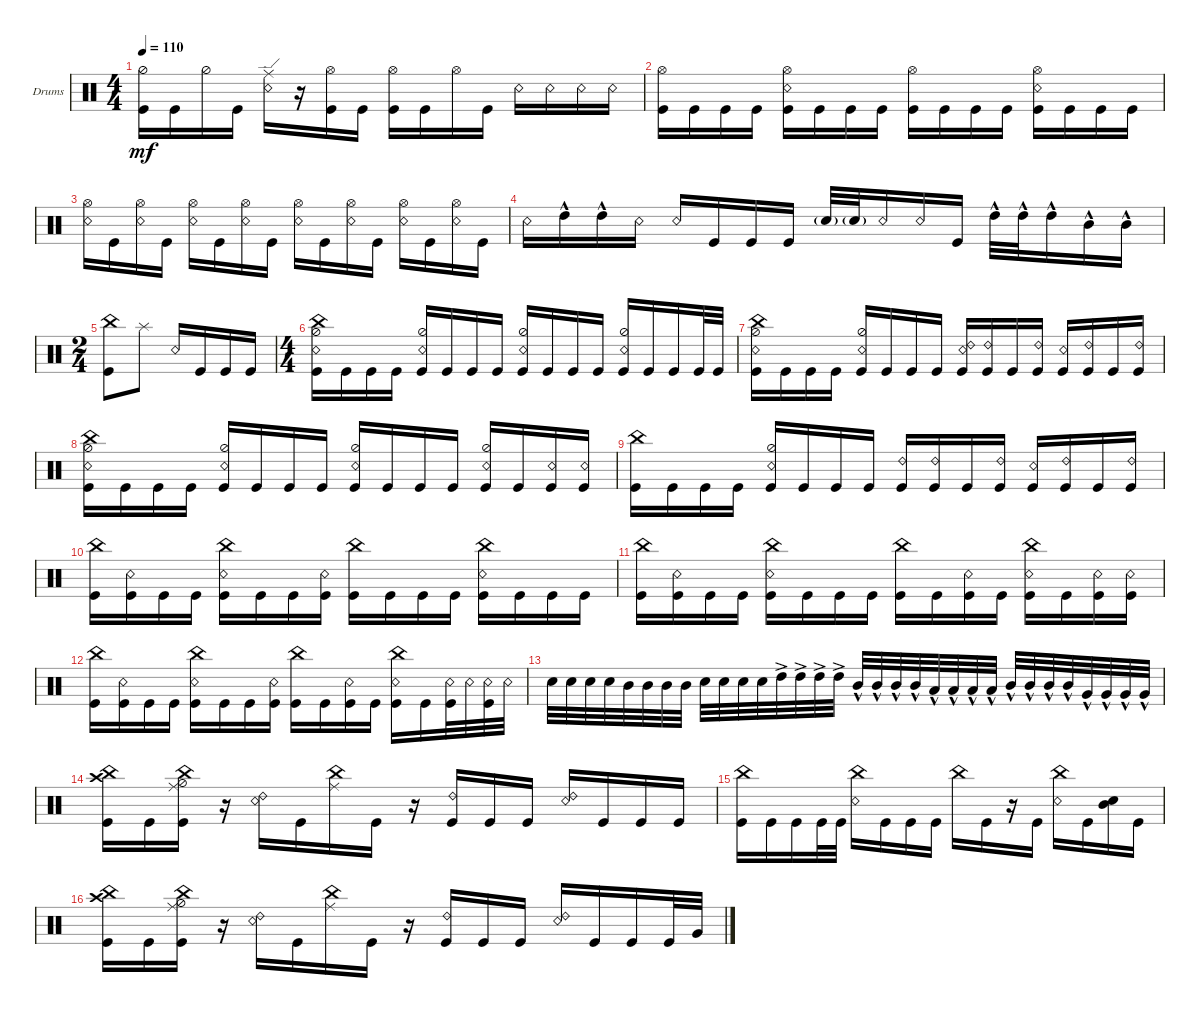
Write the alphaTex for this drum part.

\defaultSystemsLayout 4
\bracketExtendMode groupsimilarinstruments
\firstSystemTrackNameOrientation horizontal
\otherSystemsTrackNameOrientation horizontal
\track ("Drumkit" "Drums") {instrument percussion}
\staff {score}
\articulation defaults
\ts (4 4)
\tempo 110
\clef neutral
\ks c
("Kick (hit)" "Hi-Hat (half)").16{dy mf} "Kick (hit)".16 "Hi-Hat (half)".16 "Kick (hit)".16 ("Ride (edge)" "Snare (rim shot)").16 r.16 ("Kick (hit)" "Hi-Hat (open)").16 "Kick (hit)".16 ("Kick (hit)" "Hi-Hat (open)").16 "Kick (hit)".16 "Hi-Hat (open)".16 "Kick (hit)".16 "Snare (rim shot)".16 "Snare (rim shot)".16 "Snare (rim shot)".16 "Snare (rim shot)".16 |
("Kick (hit)" "Hi-Hat (open)").16 "Kick (hit)".16 "Kick (hit)".16 "Kick (hit)".16 ("Kick (hit)" "Snare (rim shot)" "Hi-Hat (open)").16 "Kick (hit)".16 "Kick (hit)".16 "Kick (hit)".16 ("Kick (hit)" "Hi-Hat (open)").16 "Kick (hit)".16 "Kick (hit)".16 "Kick (hit)".16 ("Kick (hit)" "Snare (rim shot)" "Hi-Hat (open)").16 "Kick (hit)".16 "Kick (hit)".16 "Kick (hit)".16 |
("Snare (rim shot)" "Hi-Hat (open)").16 "Kick (hit)".16 ("Snare (rim shot)" "Hi-Hat (open)").16 "Kick (hit)".16 ("Snare (rim shot)" "Hi-Hat (open)").16 "Kick (hit)".16 ("Snare (rim shot)" "Hi-Hat (open)").16 "Kick (hit)".16 ("Snare (rim shot)" "Hi-Hat (open)").16 "Kick (hit)".16 ("Snare (rim shot)" "Hi-Hat (open)").16 "Kick (hit)".16 ("Snare (rim shot)" "Hi-Hat (open)").16 "Kick (hit)".16 ("Snare (rim shot)" "Hi-Hat (open)").16 "Kick (hit)".16 |
"Snare (rim shot)".16 "High Tom (hit)"{hac}.16 "High Tom (hit)"{hac}.16 "Snare (rim shot)".16 "Snare (rim shot)".16 "Kick (hit)".16 "Kick (hit)".16 "Kick (hit)".16 "Snare (hit) 2"{g}.32 "Snare (hit) 2"{g}.32 "Snare (rim shot)".16 "Snare (rim shot)".16 "Kick (hit)".16 "High Tom (hit)"{hac}.32 "High Tom (hit)"{hac}.32 "High Tom (hit)"{hac}.16 "Mid Tom (hit)"{hac}.16 "Mid Tom (hit)"{hac}.16 |
\ts (2 4)
("Kick (hit)" "China (hit)").8 "Splash (hit)".8 "Snare (rim shot)".16 "Kick (hit)".16 "Kick (hit)".16 "Kick (hit)".16 |
\ts (4 4)
("Kick (hit)" "Snare (rim shot)" "Hi-Hat (half)" "China (hit)").16 "Kick (hit)".16 "Kick (hit)".16 "Kick (hit)".16 ("Kick (hit)" "Snare (rim shot)" "Hi-Hat (half)").16 "Kick (hit)".16 "Kick (hit)".16 "Kick (hit)".16 ("Kick (hit)" "Snare (rim shot)" "Hi-Hat (half)").16 "Kick (hit)".16 "Kick (hit)".16 "Kick (hit)".16 ("Kick (hit)" "Snare (rim shot)" "Hi-Hat (half)").16 "Kick (hit)".16 "Kick (hit)".16 "Kick (hit)".32 "Kick (hit)".32 |
("Kick (hit)" "Snare (rim shot)" "Hi-Hat (half)" "China (hit)").16 "Kick (hit)".16 "Kick (hit)".16 "Kick (hit)".16 ("Kick (hit)" "Snare (rim shot)" "Hi-Hat (half)").16 "Kick (hit)".16 "Kick (hit)".16 "Kick (hit)".16 ("Kick (hit)" "Snare (rim shot)" "Ride (bell) 2").16 ("Kick (hit)" "Ride (bell) 2").16 "Kick (hit)".16 ("Kick (hit)" "Ride (bell) 2").16 ("Kick (hit)" "Snare (rim shot)").16 ("Kick (hit)" "Ride (bell) 2").16 "Kick (hit)".16 ("Kick (hit)" "Ride (bell) 2").16 |
("Kick (hit)" "Snare (rim shot)" "Hi-Hat (half)" "China (hit)").16 "Kick (hit)".16 "Kick (hit)".16 "Kick (hit)".16 ("Kick (hit)" "Snare (rim shot)" "Hi-Hat (half)").16 "Kick (hit)".16 "Kick (hit)".16 "Kick (hit)".16 ("Kick (hit)" "Snare (rim shot)" "Hi-Hat (half)").16 "Kick (hit)".16 "Kick (hit)".16 "Kick (hit)".16 ("Kick (hit)" "Snare (rim shot)" "Hi-Hat (half)").16 "Kick (hit)".16 ("Kick (hit)" "Snare (rim shot)").16 ("Kick (hit)" "Snare (rim shot)").16 |
("Kick (hit)" "China (hit)").16 "Kick (hit)".16 "Kick (hit)".16 "Kick (hit)".16 ("Kick (hit)" "Snare (rim shot)" "Hi-Hat (half)").16 "Kick (hit)".16 "Kick (hit)".16 "Kick (hit)".16 ("Kick (hit)" "Ride (bell) 2").16 ("Kick (hit)" "Ride (bell) 2").16 "Kick (hit)".16 ("Kick (hit)" "Ride (bell) 2").16 ("Kick (hit)" "Snare (rim shot)").16 ("Kick (hit)" "Ride (bell) 2").16 "Kick (hit)".16 ("Kick (hit)" "Ride (bell) 2").16 |
("Kick (hit)" "China (hit)").16 ("Kick (hit)" "Snare (rim shot)").16 "Kick (hit)".16 "Kick (hit)".16 ("Kick (hit)" "Snare (rim shot)" "China (hit)").16 "Kick (hit)".16 "Kick (hit)".16 ("Kick (hit)" "Snare (rim shot)").16 ("Kick (hit)" "China (hit)").16 "Kick (hit)".16 "Kick (hit)".16 "Kick (hit)".16 ("Kick (hit)" "Snare (rim shot)" "China (hit)").16 "Kick (hit)".16 "Kick (hit)".16 "Kick (hit)".16 |
("Kick (hit)" "China (hit)").16 ("Kick (hit)" "Snare (rim shot)").16 "Kick (hit)".16 "Kick (hit)".16 ("Kick (hit)" "Snare (rim shot)" "China (hit)").16 "Kick (hit)".16 "Kick (hit)".16 "Kick (hit)".16 ("Kick (hit)" "China (hit)").16 "Kick (hit)".16 ("Kick (hit)" "Snare (rim shot)").16 "Kick (hit)".16 ("Kick (hit)" "Snare (rim shot)" "China (hit)").16 "Kick (hit)".16 ("Kick (hit)" "Snare (rim shot)").16 ("Kick (hit)" "Snare (rim shot)").16 |
("Kick (hit)" "China (hit)").16 ("Kick (hit)" "Snare (rim shot)").16 "Kick (hit)".16 "Kick (hit)".16 ("Kick (hit)" "Snare (rim shot)" "China (hit)").16 "Kick (hit)".16 "Kick (hit)".16 ("Kick (hit)" "Snare (rim shot)").16 ("Kick (hit)" "China (hit)").16 "Kick (hit)".16 ("Kick (hit)" "Snare (rim shot)").16 "Kick (hit)".16 ("Kick (hit)" "Snare (rim shot)" "China (hit)").16 "Kick (hit)".16 ("Kick (hit)" "Snare (rim shot)").32 "Snare (rim shot)".32 ("Snare (rim shot)" "Kick (hit)").32 "Snare (rim shot)".32 |
"Snare (hit) 2".32 "Snare (hit) 2".32 "Snare (hit) 2".32 "Snare (hit) 2".32 "Mid Tom (hit)".32 "Mid Tom (hit)".32 "Mid Tom (hit)".32 "Mid Tom (hit)".32 "Snare (hit) 2".32 "Snare (hit) 2".32 "Snare (hit) 2".32 "Snare (hit) 2".32 "High Tom (hit)"{ac}.32 "High Tom (hit)"{ac}.32 "High Tom (hit)"{ac}.32 "High Tom (hit)"{ac}.32 "Mid Tom (hit)"{hac}.32 "Mid Tom (hit)"{hac}.32 "Mid Tom (hit)"{hac}.32 "Mid Tom (hit)"{hac}.32 "Low Tom (hit)"{hac}.32 "Low Tom (hit)"{hac}.32 "Low Tom (hit)"{hac}.32 "Low Tom (hit)"{hac}.32 "Mid Tom (hit)"{hac}.32 "Mid Tom (hit)"{hac}.32 "Mid Tom (hit)"{hac}.32 "Mid Tom (hit)"{hac}.32 "Very Low Tom (hit)"{hac}.32 "Very Low Tom (hit)"{hac}.32 "Very Low Tom (hit)"{hac}.32 "Very Low Tom (hit)"{hac}.32 |
("Crash high (hit)" "China (hit)" "Kick (hit)").16 "Kick (hit)".16 ("Kick (hit)" "Ride (middle)" "Hi-Hat (half)" "China (hit)").16 r.16 ("Snare (rim shot)" "Ride (bell) 2").16 "Kick (hit)".16 ("Ride (middle)" "China (hit)").16 "Kick (hit)".16 r.16 ("Kick (hit)" "Ride (bell) 2").16 "Kick (hit)".16 "Kick (hit)".16 ("Snare (rim shot)" "Ride (bell) 2").16 "Kick (hit)".16 "Kick (hit)".16 "Kick (hit)".16 |
\scale
0.34702 ("China (hit)" "Kick (hit)").16 "Kick (hit)".16 "Kick (hit)".16 "Kick (hit)".32 "Kick (hit)".32 ("Snare (rim shot)" "China (hit)").16 "Kick (hit)".16 "Kick (hit)".16 "Kick (hit)".16 "China (hit)".16 "Kick (hit)".16 r.16 "Kick (hit)".16 ("Snare (rim shot)" "China (hit)").16 "Kick (hit)".16 ("Mid Tom (hit)" "Snare (hit) 2").16 "Kick (hit)".16 |
\scale
0.345123 ("Crash high (hit)" "China (hit)" "Kick (hit)").16 "Kick (hit)".16 ("Kick (hit)" "Ride (middle)" "Hi-Hat (half)" "China (hit)").16 r.16 ("Snare (rim shot)" "Ride (bell) 2").16 "Kick (hit)".16 ("Ride (middle)" "China (hit)").16 "Kick (hit)".16 r.16 ("Kick (hit)" "Ride (bell) 2").16 "Kick (hit)".16 "Kick (hit)".16 ("Snare (rim shot)" "Ride (bell) 2").16 "Kick (hit)".16 "Kick (hit)".16 "Kick (hit)".32 "Very Low Tom (hit)".32
